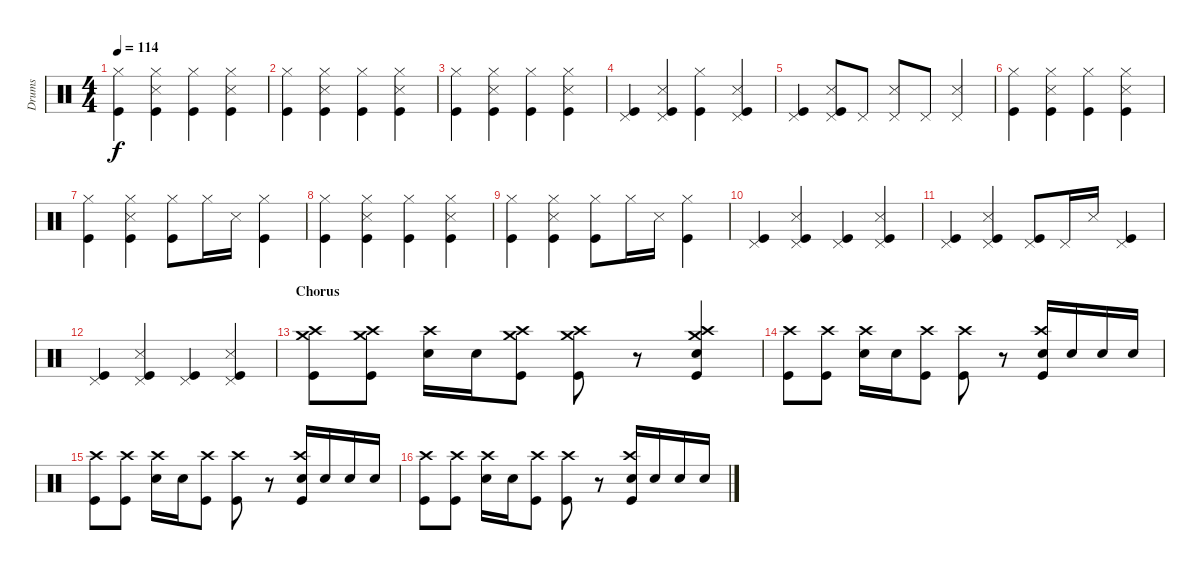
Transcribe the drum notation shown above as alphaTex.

\track ("Drums" "Drums") {instrument percussion}
\staff {score}
\articulation defaults
\ts (4 4)
\tempo 114
\clef neutral
\ks c
("Hi-Hat (closed)" "Kick (hit)").4{dy f} ("Hi-Hat (closed)" "Snare (side stick) 3" "Kick (hit)").4 ("Hi-Hat (closed)" "Kick (hit)").4 ("Hi-Hat (closed)" "Snare (side stick) 3" "Kick (hit)").4 |
("Hi-Hat (closed)" "Kick (hit)").4 ("Hi-Hat (closed)" "Snare (side stick) 3" "Kick (hit)").4 ("Hi-Hat (closed)" "Kick (hit)").4 ("Hi-Hat (closed)" "Snare (side stick) 3" "Kick (hit)").4 |
("Hi-Hat (closed)" "Kick (hit)").4 ("Hi-Hat (closed)" "Snare (side stick) 3" "Kick (hit)").4 ("Hi-Hat (closed)" "Kick (hit)").4 ("Hi-Hat (closed)" "Snare (side stick) 3" "Kick (hit)").4 |
("Pedal Hi-Hat (hit)" "Kick (hit)").4 ("Pedal Hi-Hat (hit)" "Snare (side stick) 3" "Kick (hit)").4 ("Hi-Hat (closed)" "Kick (hit)").4 ("Pedal Hi-Hat (hit)" "Snare (side stick) 3" "Kick (hit)").4 |
("Pedal Hi-Hat (hit)" "Kick (hit)").4 ("Pedal Hi-Hat (hit)" "Snare (side stick) 3" "Kick (hit)").8 "Pedal Hi-Hat (hit)".8 ("Pedal Hi-Hat (hit)" "Snare (side stick) 3").8 "Pedal Hi-Hat (hit)".8 ("Pedal Hi-Hat (hit)" "Snare (side stick) 3").4 |
("Hi-Hat (closed)" "Kick (hit)").4 ("Hi-Hat (closed)" "Snare (side stick) 3" "Kick (hit)").4 ("Hi-Hat (closed)" "Kick (hit)").4 ("Hi-Hat (closed)" "Snare (side stick) 3" "Kick (hit)").4 |
("Hi-Hat (closed)" "Kick (hit)").4 ("Hi-Hat (closed)" "Snare (side stick) 3" "Kick (hit)").4 ("Hi-Hat (closed)" "Kick (hit)").8 "Hi-Hat (closed)".16 "Snare (side stick) 3".16 ("Hi-Hat (closed)" "Kick (hit)").4 |
("Hi-Hat (closed)" "Kick (hit)").4 ("Hi-Hat (closed)" "Snare (side stick) 3" "Kick (hit)").4 ("Hi-Hat (closed)" "Kick (hit)").4 ("Hi-Hat (closed)" "Snare (side stick) 3" "Kick (hit)").4 |
("Hi-Hat (closed)" "Kick (hit)").4 ("Hi-Hat (closed)" "Snare (side stick) 3" "Kick (hit)").4 ("Hi-Hat (closed)" "Kick (hit)").8 "Hi-Hat (closed)".16 "Snare (side stick) 3".16 ("Hi-Hat (closed)" "Kick (hit)").4 |
("Pedal Hi-Hat (hit)" "Kick (hit)").4 ("Pedal Hi-Hat (hit)" "Snare (side stick) 3" "Kick (hit)").4 ("Pedal Hi-Hat (hit)" "Kick (hit)").4 ("Pedal Hi-Hat (hit)" "Snare (side stick) 3" "Kick (hit)").4 |
("Pedal Hi-Hat (hit)" "Kick (hit)").4 ("Pedal Hi-Hat (hit)" "Snare (side stick) 3" "Kick (hit)").4 ("Pedal Hi-Hat (hit)" "Kick (hit)").8 "Pedal Hi-Hat (hit)".16 "Snare (side stick) 3".16 ("Pedal Hi-Hat (hit)" "Kick (hit)").4 |
("Pedal Hi-Hat (hit)" "Kick (hit)").4 ("Pedal Hi-Hat (hit)" "Snare (side stick) 3" "Kick (hit)").4 ("Pedal Hi-Hat (hit)" "Kick (hit)").4 ("Pedal Hi-Hat (hit)" "Snare (side stick) 3" "Kick (hit)").4 |
\section ("" "Chorus")
("Crash high (hit)" "Crash medium (hit)" "Kick (hit)").8 ("Crash high (hit)" "Crash medium (hit)" "Kick (hit)").8 ("Crash high (hit)" "Electric Snare (hit)").16 "Electric Snare (hit)".16 ("Crash high (hit)" "Crash medium (hit)" "Kick (hit)").8 ("Crash high (hit)" "Crash medium (hit)" "Kick (hit)").8 r.8 ("Crash high (hit)" "Crash medium (hit)" "Electric Snare (hit)" "Kick (hit)").4 |
("Crash high (hit)" "Kick (hit)").8 ("Crash high (hit)" "Kick (hit)").8 ("Crash high (hit)" "Electric Snare (hit)").16 "Electric Snare (hit)".16 ("Crash high (hit)" "Kick (hit)").8 ("Crash high (hit)" "Kick (hit)").8 r.8 ("Crash high (hit)" "Electric Snare (hit)" "Kick (hit)").16 "Electric Snare (hit)".16 "Electric Snare (hit)".16 "Electric Snare (hit)".16 |
("Crash high (hit)" "Kick (hit)").8 ("Crash high (hit)" "Kick (hit)").8 ("Crash high (hit)" "Electric Snare (hit)").16 "Electric Snare (hit)".16 ("Crash high (hit)" "Kick (hit)").8 ("Crash high (hit)" "Kick (hit)").8 r.8 ("Crash high (hit)" "Electric Snare (hit)" "Kick (hit)").16 "Electric Snare (hit)".16 "Electric Snare (hit)".16 "Electric Snare (hit)".16 |
("Crash high (hit)" "Kick (hit)").8 ("Crash high (hit)" "Kick (hit)").8 ("Crash high (hit)" "Electric Snare (hit)").16 "Electric Snare (hit)".16 ("Crash high (hit)" "Kick (hit)").8 ("Crash high (hit)" "Kick (hit)").8 r.8 ("Crash high (hit)" "Electric Snare (hit)" "Kick (hit)").16 "Electric Snare (hit)".16 "Electric Snare (hit)".16 "Electric Snare (hit)".16
